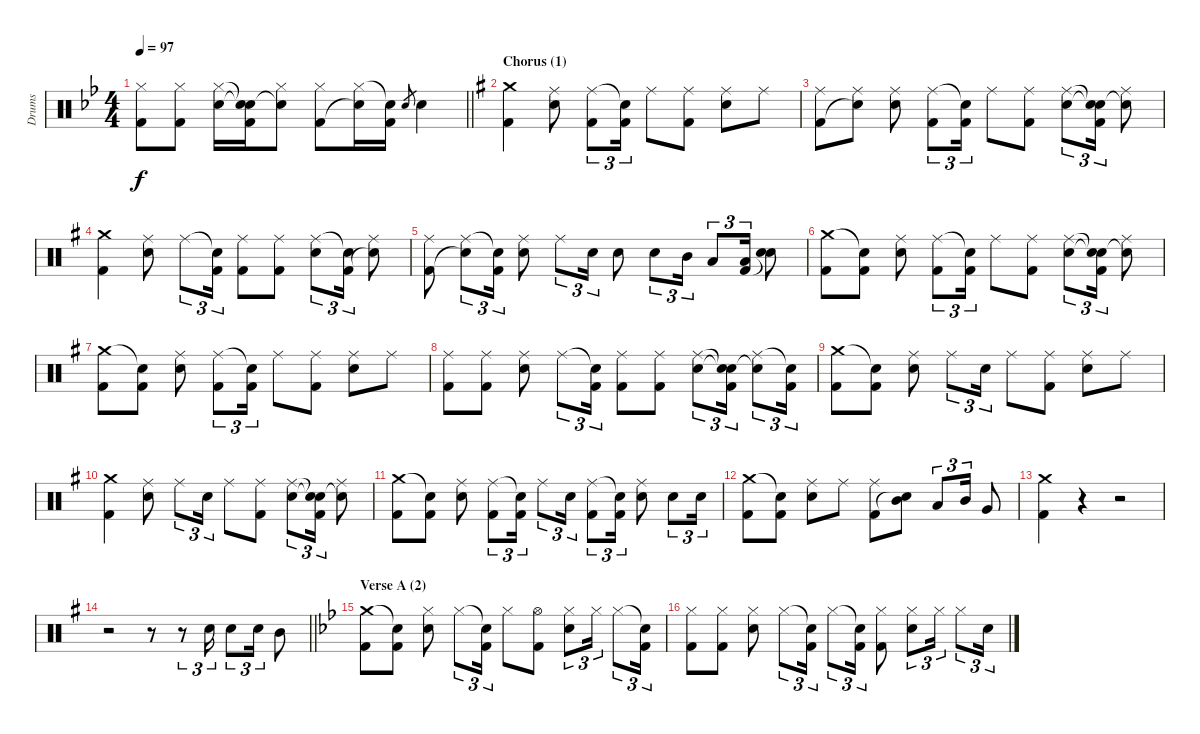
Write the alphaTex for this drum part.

\track ("Drums" "Drums") {instrument percussion}
\staff {score}
\articulation defaults
\ts (4 4)
\tempo 97
\clef neutral
\barLineRight lightlight
\ks bb
("Hi-Hat (closed)" "Kick (hit) 2").8{dy f} ("Hi-Hat (closed)" "Kick (hit) 2").8 ("Hi-Hat (closed)" "Electric Snare (hit)").16 ("Snare (hit)"{t} "Snare (hit)"{t} "Kick (hit) 2").16 ("Hi-Hat (closed)" "Snare (hit)"{t}).8 ("Hi-Hat (closed)" "Kick (hit) 2").8 ("Hi-Hat (closed)" "Snare (hit)"{t}).16 ("Snare (hit)"{t} "Kick (hit) 2").16 "Electric Snare (hit)".8{gr} "Electric Snare (hit)".4 |
\section ("" "Chorus (1)")
\ks g
("Crash medium (hit)" "Kick (hit) 2").4 ("Ride (middle)" "Electric Snare (hit)").8 ("Ride (middle)" "Kick (hit) 2").8{tu (3 2)} ("Snare (hit)"{t} "Kick (hit) 2").16{tu (3 2)} "Ride (middle)".8 ("Ride (middle)" "Kick (hit) 2").8 ("Ride (middle)" "Electric Snare (hit)").8 "Ride (middle)".8 |
("Ride (middle)" "Kick (hit) 2").8 ("Ride (middle)" "Snare (hit)"{t}).8 ("Ride (middle)" "Electric Snare (hit)").8 ("Ride (middle)" "Kick (hit) 2").8{tu (3 2)} ("Snare (hit)"{t} "Kick (hit) 2").16{tu (3 2)} "Ride (middle)".8 ("Ride (middle)" "Kick (hit) 2").8 ("Ride (middle)" "Electric Snare (hit)").8{tu (3 2)} ("Snare (hit)"{t} "Snare (hit)"{t} "Kick (hit) 2").16{tu (3 2)} ("Ride (middle)" "Snare (hit)"{t}).8 |
("Crash medium (hit)" "Kick (hit) 2").4 ("Ride (middle)" "Electric Snare (hit)").8 "Ride (middle)".8{tu (3 2)} ("Snare (hit)"{t} "Kick (hit) 2").16{tu (3 2)} ("Ride (middle)" "Kick (hit) 2").8 ("Ride (middle)" "Kick (hit) 2").8 ("Ride (middle)" "Electric Snare (hit)").8{tu (3 2)} ("Snare (hit)"{t} "Kick (hit) 2").16{tu (3 2)} ("Ride (middle)" "Snare (hit)"{t}).8 |
("Ride (middle)" "Kick (hit) 2").8 ("Ride (middle)" "Snare (hit)"{t}).8{tu (3 2)} ("Snare (hit)"{t} "Kick (hit) 2").16{tu (3 2)} ("Ride (middle)" "Electric Snare (hit)").8 "Ride (middle)".8{tu (3 2)} "Electric Snare (hit)".16{tu (3 2)} "Electric Snare (hit)".8 "Electric Snare (hit)".8{tu (3 2)} "Mid Tom (hit)".16{tu (3 2)} "Low Tom (hit)".8{tu (3 2)} ("Low Floor Tom (hit)" "Kick (hit) 2").16{tu (3 2)} ("Electric Snare (hit)" "Snare (hit)"{t}).8 |
("Crash medium (hit)" "Kick (hit) 2").8 ("Snare (hit)"{t} "Kick (hit) 2").8 ("Ride (middle)" "Electric Snare (hit)").8 ("Ride (middle)" "Kick (hit) 2").8{tu (3 2)} ("Snare (hit)"{t} "Kick (hit) 2").16{tu (3 2)} "Ride (middle)".8 ("Ride (middle)" "Kick (hit) 2").8 ("Ride (middle)" "Electric Snare (hit)").8{tu (3 2)} ("Snare (hit)"{t} "Snare (hit)"{t} "Kick (hit) 2").16{tu (3 2)} ("Ride (middle)" "Snare (hit)"{t}).8 |
("Crash medium (hit)" "Kick (hit) 2").8 ("Snare (hit)"{t} "Kick (hit) 2").8 ("Ride (middle)" "Electric Snare (hit)").8 ("Ride (middle)" "Kick (hit) 2").8{tu (3 2)} ("Snare (hit)"{t} "Kick (hit) 2").16{tu (3 2)} "Ride (middle)".8 ("Ride (middle)" "Kick (hit) 2").8 ("Ride (middle)" "Electric Snare (hit)").8 "Ride (middle)".8 |
("Ride (middle)" "Kick (hit) 2").8 ("Ride (middle)" "Kick (hit) 2").8 ("Ride (middle)" "Electric Snare (hit)").8 "Ride (middle)".8{tu (3 2)} ("Snare (hit)"{t} "Kick (hit) 2").16{tu (3 2)} ("Ride (middle)" "Kick (hit) 2").8 ("Ride (middle)" "Kick (hit) 2").8 ("Ride (middle)" "Electric Snare (hit)").8{tu (3 2)} ("Snare (hit)"{t} "Snare (hit)"{t} "Kick (hit) 2").16{tu (3 2)} ("Ride (middle)" "Snare (hit)"{t}).8{tu (3 2)} ("Snare (hit)"{t} "Kick (hit) 2").16{tu (3 2)} |
("Crash medium (hit)" "Kick (hit) 2").8 ("Snare (hit)"{t} "Kick (hit) 2").8 ("Ride (middle)" "Electric Snare (hit)").8 "Ride (middle)".8{tu (3 2)} "Electric Snare (hit)".16{tu (3 2)} "Ride (middle)".8 ("Ride (middle)" "Kick (hit) 2").8 ("Ride (middle)" "Electric Snare (hit)").8 "Ride (middle)".8 |
("Crash medium (hit)" "Kick (hit) 2").4 ("Ride (middle)" "Electric Snare (hit)").8 "Ride (middle)".8{tu (3 2)} "Electric Snare (hit)".16{tu (3 2)} "Ride (middle)".8 ("Ride (middle)" "Kick (hit) 2").8 ("Ride (middle)" "Electric Snare (hit)").8{tu (3 2)} ("Snare (hit)"{t} "Snare (hit)"{t} "Kick (hit) 2").16{tu (3 2)} ("Ride (middle)" "Snare (hit)"{t}).8 |
("Crash medium (hit)" "Kick (hit) 2").8 ("Snare (hit)"{t} "Kick (hit) 2").8 ("Ride (middle)" "Electric Snare (hit)").8 ("Ride (middle)" "Kick (hit) 2").8{tu (3 2)} ("Snare (hit)"{t} "Kick (hit) 2").16{tu (3 2)} "Ride (middle)".8{tu (3 2)} "Electric Snare (hit)".16{tu (3 2)} ("Ride (middle)" "Kick (hit) 2").8{tu (3 2)} ("Snare (hit)"{t} "Kick (hit) 2").16{tu (3 2)} ("Ride (middle)" "Electric Snare (hit)").8 "Electric Snare (hit)".8{tu (3 2)} "Electric Snare (hit)".16{tu (3 2)} |
("Crash medium (hit)" "Kick (hit) 2").8 ("Snare (hit)"{t} "Kick (hit) 2").8 ("Ride (middle)" "Electric Snare (hit)").8 "Ride (middle)".8 ("Ride (middle)" "Kick (hit) 2").8 ("Mid Tom (hit)" "Snare (hit)"{t}).8 "Low Tom (hit)".8{tu (3 2)} "Mid Tom (hit)".16{tu (3 2)} "Very Low Tom (hit)".8 |
("Crash medium (hit)" "Kick (hit) 2").4 r.4 r.2 |
\barLineRight lightlight
r.2 r.8 r.8{tu (3 2)} "Electric Snare (hit)".16{tu (3 2)} "Electric Snare (hit)".8{tu (3 2)} "Electric Snare (hit)".16{tu (3 2)} "Mid Tom (hit)".8 |
\section ("" "Verse A (2)")
\ks bb
("Crash medium (hit)" "Kick (hit) 2").8 ("Snare (hit)"{t} "Kick (hit) 2").8 ("Hi-Hat (closed)" "Electric Snare (hit)").8 "Hi-Hat (closed)".8{tu (3 2)} ("Snare (hit)"{t} "Kick (hit) 2").16{tu (3 2)} "Hi-Hat (closed)".8 ("Hi-Hat (open)" "Kick (hit) 2").8 ("Hi-Hat (closed)" "Electric Snare (hit)").8{tu (3 2)} "Hi-Hat (closed)".16{tu (3 2)} "Hi-Hat (closed)".8{tu (3 2)} ("Snare (hit)"{t} "Kick (hit) 2").16{tu (3 2)} |
("Hi-Hat (closed)" "Kick (hit) 2").8 ("Hi-Hat (closed)" "Kick (hit) 2").8 ("Hi-Hat (closed)" "Electric Snare (hit)").8 "Hi-Hat (closed)".8{tu (3 2)} ("Snare (hit)"{t} "Kick (hit) 2").16{tu (3 2)} "Hi-Hat (closed)".8{tu (3 2)} ("Snare (hit)"{t} "Kick (hit) 2").16{tu (3 2)} ("Hi-Hat (closed)" "Kick (hit) 2").8 ("Hi-Hat (closed)" "Electric Snare (hit)").8{tu (3 2)} "Hi-Hat (closed)".16{tu (3 2)} "Hi-Hat (closed)".8{tu (3 2)} "Electric Snare (hit)".16{tu (3 2)}
